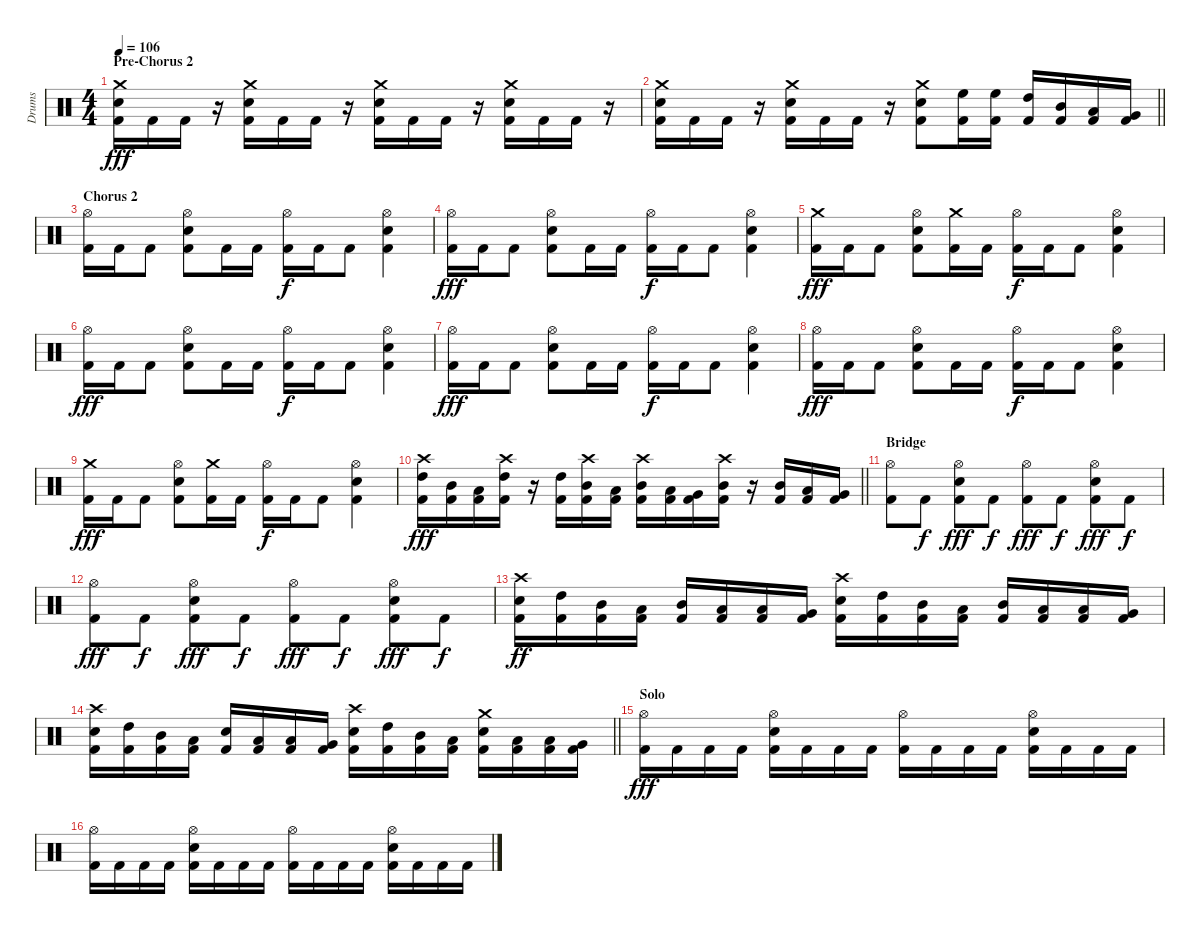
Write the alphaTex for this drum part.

\track ("Drums" "Drums") {instrument percussion}
\staff {score}
\articulation defaults
\ts (4 4)
\section ("" "Pre-Chorus 2")
\tempo 106
\clef neutral
\ks c
("Crash medium (hit)" "Snare (hit) 2" "Kick (hit) 2").16{dy fff} "Kick (hit) 2".16 "Kick (hit) 2".16 r.16 ("Crash medium (hit)" "Snare (hit) 2" "Kick (hit) 2").16 "Kick (hit) 2".16 "Kick (hit) 2".16 r.16 ("Crash medium (hit)" "Snare (hit) 2" "Kick (hit) 2").16 "Kick (hit) 2".16 "Kick (hit) 2".16 r.16 ("Crash medium (hit)" "Snare (hit) 2" "Kick (hit) 2").16 "Kick (hit) 2".16 "Kick (hit) 2".16 r.16 |
\barLineRight lightlight
("Crash medium (hit)" "Snare (hit) 2" "Kick (hit) 2").16 "Kick (hit) 2".16 "Kick (hit) 2".16 r.16 ("Crash medium (hit)" "Snare (hit) 2" "Kick (hit) 2").16 "Kick (hit) 2".16 "Kick (hit) 2".16 r.16 ("Crash medium (hit)" "Snare (hit) 2" "Kick (hit) 2").8 ("High Floor Tom (hit)" "Kick (hit) 2").16 ("High Floor Tom (hit)" "Kick (hit) 2").16 ("High Tom (hit)" "Kick (hit) 2").16 ("Mid Tom (hit)" "Kick (hit) 2").16 ("Low Tom (hit)" "Kick (hit) 2").16 ("Very Low Tom (hit)" "Kick (hit) 2").16 |
\section ("" "Chorus 2")
("Hi-Hat (open)" "Kick (hit) 2").16 "Kick (hit) 2".16 "Kick (hit) 2".8 ("Hi-Hat (open)" "Snare (hit) 2" "Kick (hit) 2").8 "Kick (hit) 2".16 "Kick (hit) 2".16 ("Hi-Hat (open)" "Kick (hit) 2").16{dy f} "Kick (hit) 2".16 "Kick (hit) 2".8 ("Hi-Hat (open)" "Snare (hit) 2" "Kick (hit) 2").4 |
("Hi-Hat (open)" "Kick (hit) 2").16{dy fff} "Kick (hit) 2".16 "Kick (hit) 2".8 ("Hi-Hat (open)" "Snare (hit) 2" "Kick (hit) 2").8 "Kick (hit) 2".16 "Kick (hit) 2".16 ("Hi-Hat (open)" "Kick (hit) 2").16{dy f} "Kick (hit) 2".16 "Kick (hit) 2".8 ("Hi-Hat (open)" "Snare (hit) 2" "Kick (hit) 2").4 |
("Crash medium (hit)" "Kick (hit) 2").16{dy fff} "Kick (hit) 2".16 "Kick (hit) 2".8 ("Hi-Hat (open)" "Snare (hit) 2" "Kick (hit) 2").8 ("Crash medium (hit)" "Kick (hit) 2").16 "Kick (hit) 2".16 ("Hi-Hat (open)" "Kick (hit) 2").16{dy f} "Kick (hit) 2".16 "Kick (hit) 2".8 ("Hi-Hat (open)" "Snare (hit) 2" "Kick (hit) 2").4 |
("Hi-Hat (open)" "Kick (hit) 2").16{dy fff} "Kick (hit) 2".16 "Kick (hit) 2".8 ("Hi-Hat (open)" "Snare (hit) 2" "Kick (hit) 2").8 "Kick (hit) 2".16 "Kick (hit) 2".16 ("Hi-Hat (open)" "Kick (hit) 2").16{dy f} "Kick (hit) 2".16 "Kick (hit) 2".8 ("Hi-Hat (open)" "Snare (hit) 2" "Kick (hit) 2").4 |
("Hi-Hat (open)" "Kick (hit) 2").16{dy fff} "Kick (hit) 2".16 "Kick (hit) 2".8 ("Hi-Hat (open)" "Snare (hit) 2" "Kick (hit) 2").8 "Kick (hit) 2".16 "Kick (hit) 2".16 ("Hi-Hat (open)" "Kick (hit) 2").16{dy f} "Kick (hit) 2".16 "Kick (hit) 2".8 ("Hi-Hat (open)" "Snare (hit) 2" "Kick (hit) 2").4 |
("Hi-Hat (open)" "Kick (hit) 2").16{dy fff} "Kick (hit) 2".16 "Kick (hit) 2".8 ("Hi-Hat (open)" "Snare (hit) 2" "Kick (hit) 2").8 "Kick (hit) 2".16 "Kick (hit) 2".16 ("Hi-Hat (open)" "Kick (hit) 2").16{dy f} "Kick (hit) 2".16 "Kick (hit) 2".8 ("Hi-Hat (open)" "Snare (hit) 2" "Kick (hit) 2").4 |
("Crash medium (hit)" "Kick (hit) 2").16{dy fff} "Kick (hit) 2".16 "Kick (hit) 2".8 ("Hi-Hat (open)" "Snare (hit) 2" "Kick (hit) 2").8 ("Crash medium (hit)" "Kick (hit) 2").16 "Kick (hit) 2".16 ("Hi-Hat (open)" "Kick (hit) 2").16{dy f} "Kick (hit) 2".16 "Kick (hit) 2".8 ("Hi-Hat (open)" "Snare (hit) 2" "Kick (hit) 2").4 |
\barLineRight lightlight
("Crash high (hit)" "High Tom (hit)" "Kick (hit) 2").16{dy fff} ("Mid Tom (hit)" "Kick (hit) 2").16 ("Low Tom (hit)" "Kick (hit) 2").16 ("Crash high (hit)" "High Tom (hit)" "Kick (hit) 2").16 r.16 ("High Tom (hit)" "Kick (hit) 2").16 ("Crash high (hit)" "Mid Tom (hit)" "Kick (hit) 2").16 ("Low Tom (hit)" "Kick (hit) 2").16 ("Crash high (hit)" "Mid Tom (hit)" "Kick (hit) 2").16 ("Low Tom (hit)" "Kick (hit) 2").16 ("Very Low Tom (hit)" "Kick (hit) 2").16 ("Crash high (hit)" "Mid Tom (hit)" "Kick (hit) 2").16 r.16 ("Mid Tom (hit)" "Kick (hit) 2").16 ("Low Tom (hit)" "Kick (hit) 2").16 ("Very Low Tom (hit)" "Kick (hit) 2").16 |
\section ("" "Bridge")
("Hi-Hat (open)" "Kick (hit) 2").8 "Kick (hit) 2".8{dy f} ("Hi-Hat (open)" "Snare (hit) 2" "Kick (hit) 2").8{dy fff} "Kick (hit) 2".8{dy f} ("Hi-Hat (open)" "Kick (hit) 2").8{dy fff} "Kick (hit) 2".8{dy f} ("Hi-Hat (open)" "Snare (hit) 2" "Kick (hit) 2").8{dy fff} "Kick (hit) 2".8{dy f} |
("Hi-Hat (open)" "Kick (hit) 2").8{dy fff} "Kick (hit) 2".8{dy f} ("Hi-Hat (open)" "Snare (hit) 2" "Kick (hit) 2").8{dy fff} "Kick (hit) 2".8{dy f} ("Hi-Hat (open)" "Kick (hit) 2").8{dy fff} "Kick (hit) 2".8{dy f} ("Hi-Hat (open)" "Snare (hit) 2" "Kick (hit) 2").8{dy fff} "Kick (hit) 2".8{dy f} |
("Crash high (hit)" "Snare (hit) 2" "Kick (hit) 2").16{dy ff} ("High Tom (hit)" "Kick (hit) 2").16 ("Mid Tom (hit)" "Kick (hit) 2").16 ("Low Tom (hit)" "Kick (hit) 2").16 ("Mid Tom (hit)" "Kick (hit) 2").16 ("Low Tom (hit)" "Kick (hit) 2").16 ("Low Tom (hit)" "Kick (hit) 2").16 ("Very Low Tom (hit)" "Kick (hit) 2").16 ("Crash high (hit)" "Snare (hit) 2" "Kick (hit) 2").16 ("High Tom (hit)" "Kick (hit) 2").16 ("Mid Tom (hit)" "Kick (hit) 2").16 ("Low Tom (hit)" "Kick (hit) 2").16 ("Mid Tom (hit)" "Kick (hit) 2").16 ("Low Tom (hit)" "Kick (hit) 2").16 ("Low Tom (hit)" "Kick (hit) 2").16 ("Very Low Tom (hit)" "Kick (hit) 2").16 |
\barLineRight lightlight
("Crash high (hit)" "Snare (hit) 2" "Kick (hit) 2").16 ("High Tom (hit)" "Kick (hit) 2").16 ("Mid Tom (hit)" "Kick (hit) 2").16 ("Low Tom (hit)" "Kick (hit) 2").16 ("Snare (hit) 2" "Kick (hit) 2").16 ("Low Tom (hit)" "Kick (hit) 2").16 ("Low Tom (hit)" "Kick (hit) 2").16 ("Very Low Tom (hit)" "Kick (hit) 2").16 ("Crash high (hit)" "Snare (hit) 2" "Kick (hit) 2").16 ("High Tom (hit)" "Kick (hit) 2").16 ("Mid Tom (hit)" "Kick (hit) 2").16 ("Low Tom (hit)" "Kick (hit) 2").16 ("Crash medium (hit)" "Snare (hit) 2" "Kick (hit) 2").16 ("Low Tom (hit)" "Kick (hit) 2").16 ("Low Tom (hit)" "Kick (hit) 2").16 ("Very Low Tom (hit)" "Kick (hit) 2").16 |
\section ("" "Solo")
("Hi-Hat (open)" "Kick (hit) 2").16{dy fff} "Kick (hit) 2".16 "Kick (hit) 2".16 "Kick (hit) 2".16 ("Hi-Hat (open)" "Snare (hit) 2" "Kick (hit) 2").16 "Kick (hit) 2".16 "Kick (hit) 2".16 "Kick (hit) 2".16 ("Hi-Hat (open)" "Kick (hit) 2").16 "Kick (hit) 2".16 "Kick (hit) 2".16 "Kick (hit) 2".16 ("Hi-Hat (open)" "Snare (hit) 2" "Kick (hit) 2").16 "Kick (hit) 2".16 "Kick (hit) 2".16 "Kick (hit) 2".16 |
("Hi-Hat (open)" "Kick (hit) 2").16 "Kick (hit) 2".16 "Kick (hit) 2".16 "Kick (hit) 2".16 ("Hi-Hat (open)" "Snare (hit) 2" "Kick (hit) 2").16 "Kick (hit) 2".16 "Kick (hit) 2".16 "Kick (hit) 2".16 ("Hi-Hat (open)" "Kick (hit) 2").16 "Kick (hit) 2".16 "Kick (hit) 2".16 "Kick (hit) 2".16 ("Hi-Hat (open)" "Snare (hit) 2" "Kick (hit) 2").16 "Kick (hit) 2".16 "Kick (hit) 2".16 "Kick (hit) 2".16
